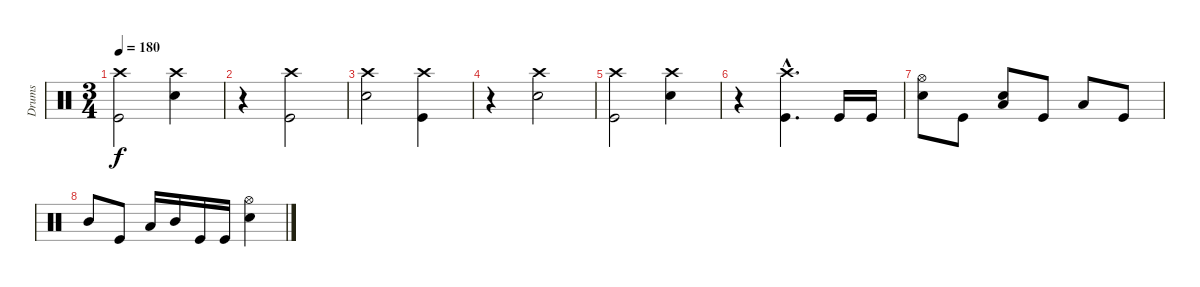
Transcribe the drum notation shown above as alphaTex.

\track ("Drums" "Drums") {instrument percussion}
\staff {score}
\articulation defaults
\ts (3 4)
\tempo 180
\clef neutral
\ks c
("Crash high (hit)" "Kick (hit)").2{dy f} ("Crash high (hit)" "Electric Snare (hit)").4 |
r.4 ("Crash high (hit)" "Kick (hit)").2 |
("Crash high (hit)" "Electric Snare (hit)").2 ("Crash high (hit)" "Kick (hit)").4 |
r.4 ("Crash high (hit)" "Electric Snare (hit)").2 |
("Crash high (hit)" "Kick (hit)").2 ("Crash high (hit)" "Electric Snare (hit)").4 |
r.4 ("Crash high (hit)"{hac} "Kick (hit)"{hac}).4{d} "Kick (hit)".16 "Kick (hit)".16 |
("Hi-Hat (open)" "Electric Snare (hit)").8 "Kick (hit)".8 ("Electric Snare (hit)" "Low Tom (hit)").8 "Kick (hit)".8 "Low Tom (hit)".8 "Kick (hit)".8 |
"Mid Tom (hit)".8 "Kick (hit)".8 "Low Tom (hit)".16 "Mid Tom (hit)".16 "Kick (hit)".16 "Kick (hit)".16 ("Hi-Hat (open)" "Electric Snare (hit)").4
